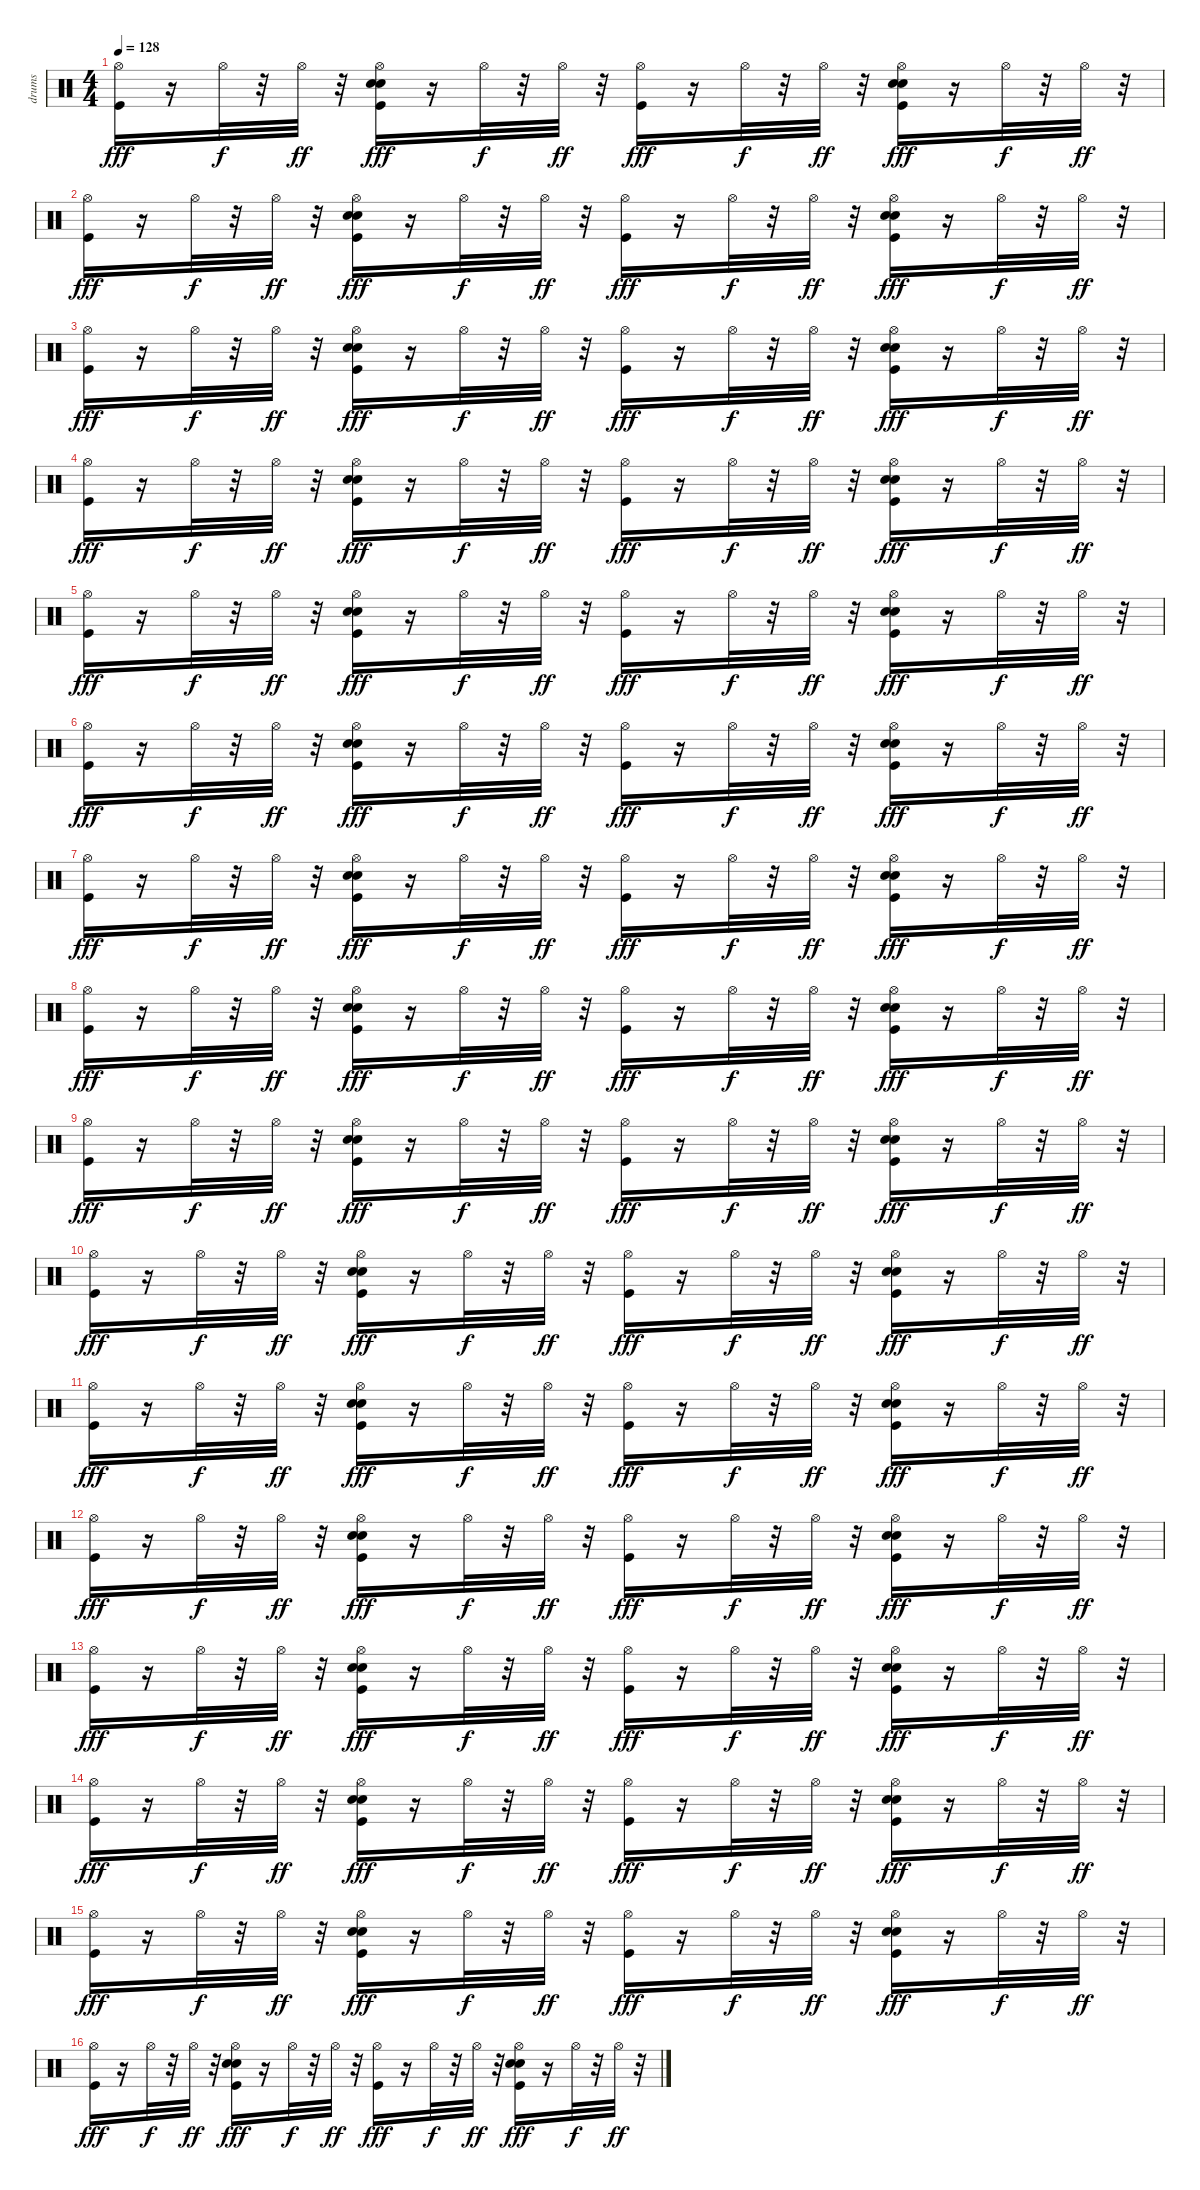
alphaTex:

\track ("drums" "drums") {instrument percussion}
\staff {score}
\articulation defaults
\ts (4 4)
\tempo 128
\clef neutral
\ks c
("Kick (hit)" "Hi-Hat (open)").16{dy fff} r.16 "Hi-Hat (open)".32{dy f} r.32 "Hi-Hat (open)".32{dy ff} r.32 ("Snare (hit) 2" "Electric Snare (hit)" "Kick (hit)" "Hi-Hat (open)").16{dy fff} r.16 "Hi-Hat (open)".32{dy f} r.32 "Hi-Hat (open)".32{dy ff} r.32 ("Kick (hit)" "Hi-Hat (open)").16{dy fff} r.16 "Hi-Hat (open)".32{dy f} r.32 "Hi-Hat (open)".32{dy ff} r.32 ("Kick (hit)" "Snare (hit) 2" "Electric Snare (hit)" "Hi-Hat (open)").16{dy fff} r.16 "Hi-Hat (open)".32{dy f} r.32 "Hi-Hat (open)".32{dy ff} r.32 |
("Hi-Hat (open)" "Kick (hit)").16{dy fff} r.16 "Hi-Hat (open)".32{dy f} r.32 "Hi-Hat (open)".32{dy ff} r.32 ("Snare (hit) 2" "Electric Snare (hit)" "Kick (hit)" "Hi-Hat (open)").16{dy fff} r.16 "Hi-Hat (open)".32{dy f} r.32 "Hi-Hat (open)".32{dy ff} r.32 ("Kick (hit)" "Hi-Hat (open)").16{dy fff} r.16 "Hi-Hat (open)".32{dy f} r.32 "Hi-Hat (open)".32{dy ff} r.32 ("Kick (hit)" "Snare (hit) 2" "Electric Snare (hit)" "Hi-Hat (open)").16{dy fff} r.16 "Hi-Hat (open)".32{dy f} r.32 "Hi-Hat (open)".32{dy ff} r.32 |
("Hi-Hat (open)" "Kick (hit)").16{dy fff} r.16 "Hi-Hat (open)".32{dy f} r.32 "Hi-Hat (open)".32{dy ff} r.32 ("Snare (hit) 2" "Electric Snare (hit)" "Kick (hit)" "Hi-Hat (open)").16{dy fff} r.16 "Hi-Hat (open)".32{dy f} r.32 "Hi-Hat (open)".32{dy ff} r.32 ("Kick (hit)" "Hi-Hat (open)").16{dy fff} r.16 "Hi-Hat (open)".32{dy f} r.32 "Hi-Hat (open)".32{dy ff} r.32 ("Kick (hit)" "Snare (hit) 2" "Electric Snare (hit)" "Hi-Hat (open)").16{dy fff} r.16 "Hi-Hat (open)".32{dy f} r.32 "Hi-Hat (open)".32{dy ff} r.32 |
("Hi-Hat (open)" "Kick (hit)").16{dy fff} r.16 "Hi-Hat (open)".32{dy f} r.32 "Hi-Hat (open)".32{dy ff} r.32 ("Snare (hit) 2" "Electric Snare (hit)" "Kick (hit)" "Hi-Hat (open)").16{dy fff} r.16 "Hi-Hat (open)".32{dy f} r.32 "Hi-Hat (open)".32{dy ff} r.32 ("Kick (hit)" "Hi-Hat (open)").16{dy fff} r.16 "Hi-Hat (open)".32{dy f} r.32 "Hi-Hat (open)".32{dy ff} r.32 ("Kick (hit)" "Snare (hit) 2" "Electric Snare (hit)" "Hi-Hat (open)").16{dy fff} r.16 "Hi-Hat (open)".32{dy f} r.32 "Hi-Hat (open)".32{dy ff} r.32 |
("Hi-Hat (open)" "Kick (hit)").16{dy fff} r.16 "Hi-Hat (open)".32{dy f} r.32 "Hi-Hat (open)".32{dy ff} r.32 ("Snare (hit) 2" "Electric Snare (hit)" "Kick (hit)" "Hi-Hat (open)").16{dy fff} r.16 "Hi-Hat (open)".32{dy f} r.32 "Hi-Hat (open)".32{dy ff} r.32 ("Kick (hit)" "Hi-Hat (open)").16{dy fff} r.16 "Hi-Hat (open)".32{dy f} r.32 "Hi-Hat (open)".32{dy ff} r.32 ("Kick (hit)" "Snare (hit) 2" "Electric Snare (hit)" "Hi-Hat (open)").16{dy fff} r.16 "Hi-Hat (open)".32{dy f} r.32 "Hi-Hat (open)".32{dy ff} r.32 |
("Hi-Hat (open)" "Kick (hit)").16{dy fff} r.16 "Hi-Hat (open)".32{dy f} r.32 "Hi-Hat (open)".32{dy ff} r.32 ("Snare (hit) 2" "Electric Snare (hit)" "Kick (hit)" "Hi-Hat (open)").16{dy fff} r.16 "Hi-Hat (open)".32{dy f} r.32 "Hi-Hat (open)".32{dy ff} r.32 ("Kick (hit)" "Hi-Hat (open)").16{dy fff} r.16 "Hi-Hat (open)".32{dy f} r.32 "Hi-Hat (open)".32{dy ff} r.32 ("Kick (hit)" "Snare (hit) 2" "Electric Snare (hit)" "Hi-Hat (open)").16{dy fff} r.16 "Hi-Hat (open)".32{dy f} r.32 "Hi-Hat (open)".32{dy ff} r.32 |
("Hi-Hat (open)" "Kick (hit)").16{dy fff} r.16 "Hi-Hat (open)".32{dy f} r.32 "Hi-Hat (open)".32{dy ff} r.32 ("Snare (hit) 2" "Electric Snare (hit)" "Kick (hit)" "Hi-Hat (open)").16{dy fff} r.16 "Hi-Hat (open)".32{dy f} r.32 "Hi-Hat (open)".32{dy ff} r.32 ("Kick (hit)" "Hi-Hat (open)").16{dy fff} r.16 "Hi-Hat (open)".32{dy f} r.32 "Hi-Hat (open)".32{dy ff} r.32 ("Kick (hit)" "Snare (hit) 2" "Electric Snare (hit)" "Hi-Hat (open)").16{dy fff} r.16 "Hi-Hat (open)".32{dy f} r.32 "Hi-Hat (open)".32{dy ff} r.32 |
("Hi-Hat (open)" "Kick (hit)").16{dy fff} r.16 "Hi-Hat (open)".32{dy f} r.32 "Hi-Hat (open)".32{dy ff} r.32 ("Snare (hit) 2" "Electric Snare (hit)" "Kick (hit)" "Hi-Hat (open)").16{dy fff} r.16 "Hi-Hat (open)".32{dy f} r.32 "Hi-Hat (open)".32{dy ff} r.32 ("Kick (hit)" "Hi-Hat (open)").16{dy fff} r.16 "Hi-Hat (open)".32{dy f} r.32 "Hi-Hat (open)".32{dy ff} r.32 ("Kick (hit)" "Snare (hit) 2" "Electric Snare (hit)" "Hi-Hat (open)").16{dy fff} r.16 "Hi-Hat (open)".32{dy f} r.32 "Hi-Hat (open)".32{dy ff} r.32 |
("Kick (hit)" "Hi-Hat (open)").16{dy fff} r.16 "Hi-Hat (open)".32{dy f} r.32 "Hi-Hat (open)".32{dy ff} r.32 ("Snare (hit) 2" "Electric Snare (hit)" "Kick (hit)" "Hi-Hat (open)").16{dy fff} r.16 "Hi-Hat (open)".32{dy f} r.32 "Hi-Hat (open)".32{dy ff} r.32 ("Kick (hit)" "Hi-Hat (open)").16{dy fff} r.16 "Hi-Hat (open)".32{dy f} r.32 "Hi-Hat (open)".32{dy ff} r.32 ("Kick (hit)" "Snare (hit) 2" "Electric Snare (hit)" "Hi-Hat (open)").16{dy fff} r.16 "Hi-Hat (open)".32{dy f} r.32 "Hi-Hat (open)".32{dy ff} r.32 |
("Hi-Hat (open)" "Kick (hit)").16{dy fff} r.16 "Hi-Hat (open)".32{dy f} r.32 "Hi-Hat (open)".32{dy ff} r.32 ("Snare (hit) 2" "Electric Snare (hit)" "Kick (hit)" "Hi-Hat (open)").16{dy fff} r.16 "Hi-Hat (open)".32{dy f} r.32 "Hi-Hat (open)".32{dy ff} r.32 ("Kick (hit)" "Hi-Hat (open)").16{dy fff} r.16 "Hi-Hat (open)".32{dy f} r.32 "Hi-Hat (open)".32{dy ff} r.32 ("Kick (hit)" "Snare (hit) 2" "Electric Snare (hit)" "Hi-Hat (open)").16{dy fff} r.16 "Hi-Hat (open)".32{dy f} r.32 "Hi-Hat (open)".32{dy ff} r.32 |
("Hi-Hat (open)" "Kick (hit)").16{dy fff} r.16 "Hi-Hat (open)".32{dy f} r.32 "Hi-Hat (open)".32{dy ff} r.32 ("Snare (hit) 2" "Electric Snare (hit)" "Kick (hit)" "Hi-Hat (open)").16{dy fff} r.16 "Hi-Hat (open)".32{dy f} r.32 "Hi-Hat (open)".32{dy ff} r.32 ("Kick (hit)" "Hi-Hat (open)").16{dy fff} r.16 "Hi-Hat (open)".32{dy f} r.32 "Hi-Hat (open)".32{dy ff} r.32 ("Kick (hit)" "Snare (hit) 2" "Electric Snare (hit)" "Hi-Hat (open)").16{dy fff} r.16 "Hi-Hat (open)".32{dy f} r.32 "Hi-Hat (open)".32{dy ff} r.32 |
("Hi-Hat (open)" "Kick (hit)").16{dy fff} r.16 "Hi-Hat (open)".32{dy f} r.32 "Hi-Hat (open)".32{dy ff} r.32 ("Snare (hit) 2" "Electric Snare (hit)" "Kick (hit)" "Hi-Hat (open)").16{dy fff} r.16 "Hi-Hat (open)".32{dy f} r.32 "Hi-Hat (open)".32{dy ff} r.32 ("Kick (hit)" "Hi-Hat (open)").16{dy fff} r.16 "Hi-Hat (open)".32{dy f} r.32 "Hi-Hat (open)".32{dy ff} r.32 ("Kick (hit)" "Snare (hit) 2" "Electric Snare (hit)" "Hi-Hat (open)").16{dy fff} r.16 "Hi-Hat (open)".32{dy f} r.32 "Hi-Hat (open)".32{dy ff} r.32 |
("Hi-Hat (open)" "Kick (hit)").16{dy fff} r.16 "Hi-Hat (open)".32{dy f} r.32 "Hi-Hat (open)".32{dy ff} r.32 ("Snare (hit) 2" "Electric Snare (hit)" "Kick (hit)" "Hi-Hat (open)").16{dy fff} r.16 "Hi-Hat (open)".32{dy f} r.32 "Hi-Hat (open)".32{dy ff} r.32 ("Kick (hit)" "Hi-Hat (open)").16{dy fff} r.16 "Hi-Hat (open)".32{dy f} r.32 "Hi-Hat (open)".32{dy ff} r.32 ("Kick (hit)" "Snare (hit) 2" "Electric Snare (hit)" "Hi-Hat (open)").16{dy fff} r.16 "Hi-Hat (open)".32{dy f} r.32 "Hi-Hat (open)".32{dy ff} r.32 |
("Hi-Hat (open)" "Kick (hit)").16{dy fff} r.16 "Hi-Hat (open)".32{dy f} r.32 "Hi-Hat (open)".32{dy ff} r.32 ("Snare (hit) 2" "Electric Snare (hit)" "Kick (hit)" "Hi-Hat (open)").16{dy fff} r.16 "Hi-Hat (open)".32{dy f} r.32 "Hi-Hat (open)".32{dy ff} r.32 ("Kick (hit)" "Hi-Hat (open)").16{dy fff} r.16 "Hi-Hat (open)".32{dy f} r.32 "Hi-Hat (open)".32{dy ff} r.32 ("Kick (hit)" "Snare (hit) 2" "Electric Snare (hit)" "Hi-Hat (open)").16{dy fff} r.16 "Hi-Hat (open)".32{dy f} r.32 "Hi-Hat (open)".32{dy ff} r.32 |
("Hi-Hat (open)" "Kick (hit)").16{dy fff} r.16 "Hi-Hat (open)".32{dy f} r.32 "Hi-Hat (open)".32{dy ff} r.32 ("Snare (hit) 2" "Electric Snare (hit)" "Kick (hit)" "Hi-Hat (open)").16{dy fff} r.16 "Hi-Hat (open)".32{dy f} r.32 "Hi-Hat (open)".32{dy ff} r.32 ("Kick (hit)" "Hi-Hat (open)").16{dy fff} r.16 "Hi-Hat (open)".32{dy f} r.32 "Hi-Hat (open)".32{dy ff} r.32 ("Kick (hit)" "Snare (hit) 2" "Electric Snare (hit)" "Hi-Hat (open)").16{dy fff} r.16 "Hi-Hat (open)".32{dy f} r.32 "Hi-Hat (open)".32{dy ff} r.32 |
("Hi-Hat (open)" "Kick (hit)").16{dy fff} r.16 "Hi-Hat (open)".32{dy f} r.32 "Hi-Hat (open)".32{dy ff} r.32 ("Snare (hit) 2" "Electric Snare (hit)" "Kick (hit)" "Hi-Hat (open)").16{dy fff} r.16 "Hi-Hat (open)".32{dy f} r.32 "Hi-Hat (open)".32{dy ff} r.32 ("Kick (hit)" "Hi-Hat (open)").16{dy fff} r.16 "Hi-Hat (open)".32{dy f} r.32 "Hi-Hat (open)".32{dy ff} r.32 ("Kick (hit)" "Snare (hit) 2" "Electric Snare (hit)" "Hi-Hat (open)").16{dy fff} r.16 "Hi-Hat (open)".32{dy f} r.32 "Hi-Hat (open)".32{dy ff} r.32
